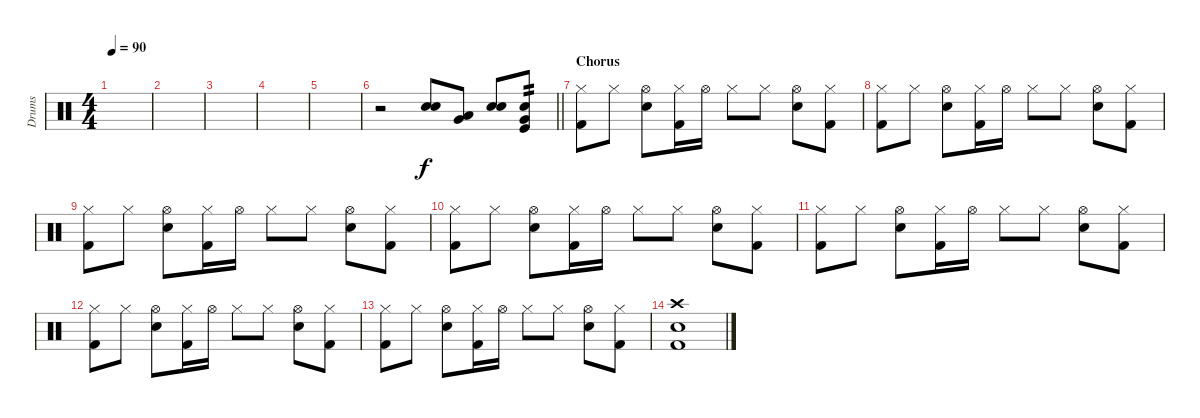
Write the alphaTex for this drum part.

\track ("Drums" "Drums") {instrument percussion}
\staff {score}
\articulation defaults
\ts (4 4)
\tempo 90
\clef neutral
\ks c
|
|
|
|
|
\barLineRight lightlight
r.2 ("Snare (hit) 2" "Snare (hit) 2").8 ("Very Low Tom (hit)" "Low Tom (hit)").8 ("Snare (hit) 2" "Snare (hit) 2").8 ("Kick (hit)" "Very Low Tom (hit)" "Snare (hit) 2").8{tp 2} |
\section ("" "Chorus")
("Kick (hit) 2" "Hi-Hat (closed)").8 "Hi-Hat (closed)".8 ("Snare (hit) 2" "Hi-Hat (open)").8 ("Kick (hit) 2" "Hi-Hat (closed)").16 "Hi-Hat (open)".16 "Hi-Hat (closed)".8 "Hi-Hat (closed)".8 ("Snare (hit) 2" "Hi-Hat (open)").8 ("Kick (hit) 2" "Hi-Hat (closed)").8 |
("Kick (hit) 2" "Hi-Hat (closed)").8 "Hi-Hat (closed)".8 ("Snare (hit) 2" "Hi-Hat (open)").8 ("Kick (hit) 2" "Hi-Hat (closed)").16 "Hi-Hat (open)".16 "Hi-Hat (closed)".8 "Hi-Hat (closed)".8 ("Snare (hit) 2" "Hi-Hat (open)").8 ("Kick (hit) 2" "Hi-Hat (closed)").8 |
("Kick (hit) 2" "Hi-Hat (closed)").8 "Hi-Hat (closed)".8 ("Snare (hit) 2" "Hi-Hat (open)").8 ("Kick (hit) 2" "Hi-Hat (closed)").16 "Hi-Hat (open)".16 "Hi-Hat (closed)".8 "Hi-Hat (closed)".8 ("Snare (hit) 2" "Hi-Hat (open)").8 ("Kick (hit) 2" "Hi-Hat (closed)").8 |
("Kick (hit) 2" "Hi-Hat (closed)").8 "Hi-Hat (closed)".8 ("Snare (hit) 2" "Hi-Hat (open)").8 ("Kick (hit) 2" "Hi-Hat (closed)").16 "Hi-Hat (open)".16 "Hi-Hat (closed)".8 "Hi-Hat (closed)".8 ("Snare (hit) 2" "Hi-Hat (open)").8 ("Kick (hit) 2" "Hi-Hat (closed)").8 |
("Kick (hit) 2" "Hi-Hat (closed)").8 "Hi-Hat (closed)".8 ("Snare (hit) 2" "Hi-Hat (open)").8 ("Kick (hit) 2" "Hi-Hat (closed)").16 "Hi-Hat (open)".16 "Hi-Hat (closed)".8 "Hi-Hat (closed)".8 ("Snare (hit) 2" "Hi-Hat (open)").8 ("Kick (hit) 2" "Hi-Hat (closed)").8 |
("Kick (hit) 2" "Hi-Hat (closed)").8 "Hi-Hat (closed)".8 ("Snare (hit) 2" "Hi-Hat (open)").8 ("Kick (hit) 2" "Hi-Hat (closed)").16 "Hi-Hat (open)".16 "Hi-Hat (closed)".8 "Hi-Hat (closed)".8 ("Snare (hit) 2" "Hi-Hat (open)").8 ("Kick (hit) 2" "Hi-Hat (closed)").8 |
("Kick (hit) 2" "Hi-Hat (closed)").8 "Hi-Hat (closed)".8 ("Snare (hit) 2" "Hi-Hat (open)").8 ("Kick (hit) 2" "Hi-Hat (closed)").16 "Hi-Hat (open)".16 "Hi-Hat (closed)".8 "Hi-Hat (closed)".8 ("Snare (hit) 2" "Hi-Hat (open)").8 ("Kick (hit) 2" "Hi-Hat (closed)").8 |
("Crash high (hit)" "Kick (hit) 2" "Snare (hit) 2").1
